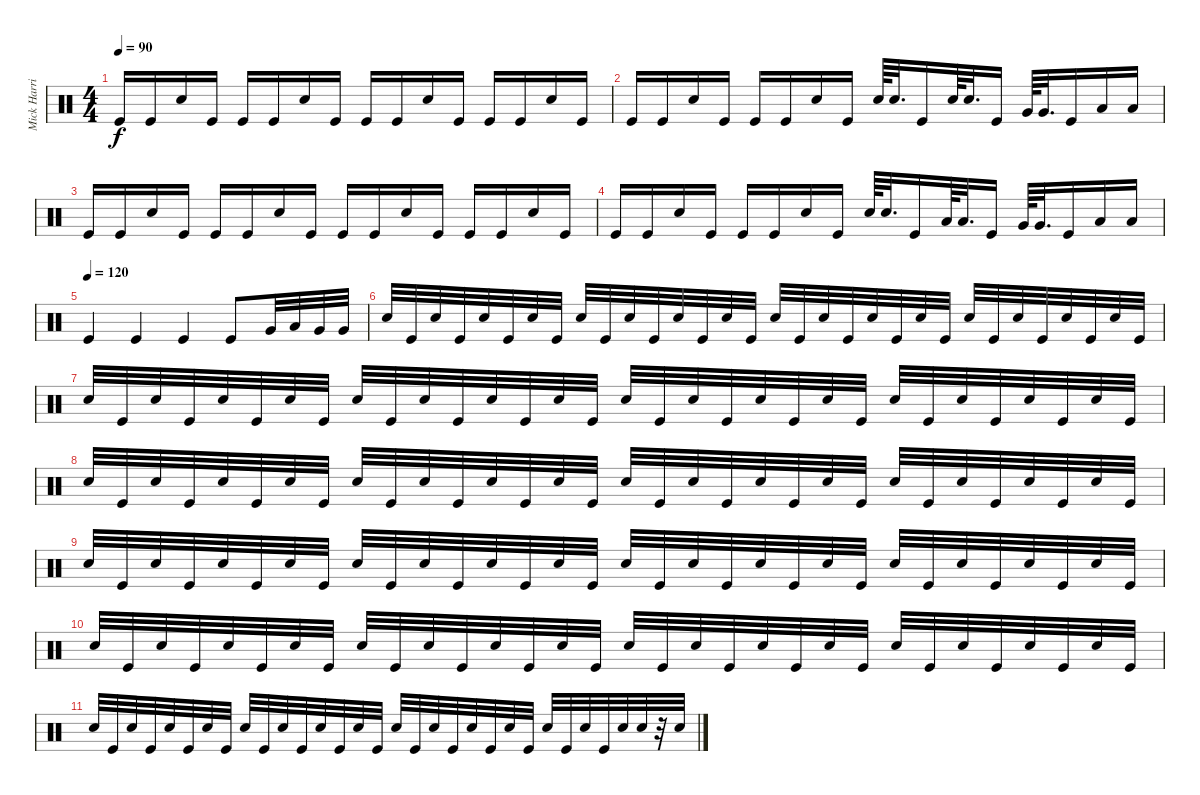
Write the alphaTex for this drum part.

\track ("Mick Harris" "Mick Harri") {instrument percussion}
\staff {score}
\articulation defaults
\ts (4 4)
\tempo 90
\clef neutral
\ks c "Kick (hit)".16{dy f} "Kick (hit)".16 "Snare (hit) 2".16 "Kick (hit)".16 "Kick (hit)".16 "Kick (hit)".16 "Snare (hit) 2".16 "Kick (hit)".16 "Kick (hit)".16 "Kick (hit)".16 "Snare (hit) 2".16 "Kick (hit)".16 "Kick (hit)".16 "Kick (hit)".16 "Snare (hit) 2".16 "Kick (hit)".16
|
"Kick (hit)".16 "Kick (hit)".16 "Snare (hit) 2".16 "Kick (hit)".16 "Kick (hit)".16 "Kick (hit)".16 "Snare (hit) 2".16 "Kick (hit)".16 "Snare (hit) 2".64 "Snare (hit) 2".32{d} "Kick (hit)".16 "Snare (hit) 2".64 "Snare (hit) 2".32{d} "Kick (hit)".16 "Very Low Tom (hit)".64 "Very Low Tom (hit)".32{d} "Kick (hit)".16 "Low Floor Tom (hit)".16 "Low Floor Tom (hit)".16 |
"Kick (hit)".16 "Kick (hit)".16 "Snare (hit) 2".16 "Kick (hit)".16 "Kick (hit)".16 "Kick (hit)".16 "Snare (hit) 2".16 "Kick (hit)".16 "Kick (hit)".16 "Kick (hit)".16 "Snare (hit) 2".16 "Kick (hit)".16 "Kick (hit)".16 "Kick (hit)".16 "Snare (hit) 2".16 "Kick (hit)".16 |
"Kick (hit)".16 "Kick (hit)".16 "Snare (hit) 2".16 "Kick (hit)".16 "Kick (hit)".16 "Kick (hit)".16 "Snare (hit) 2".16 "Kick (hit)".16 "Snare (hit) 2".64 "Snare (hit) 2".32{d} "Kick (hit)".16 "Low Tom (hit)".64 "Low Tom (hit)".32{d} "Kick (hit)".16 "Very Low Tom (hit)".64 "Very Low Tom (hit)".32{d} "Kick (hit)".16 "Low Floor Tom (hit)".16 "Low Floor Tom (hit)".16 |
\tempo (120)
"Kick (hit)".4 "Kick (hit)".4 "Kick (hit)".4 "Kick (hit)".8 "Very Low Tom (hit)".32 "Low Tom (hit)".32 "Very Low Tom (hit)".32 "Very Low Tom (hit)".32 |
"Snare (hit) 2".32 "Kick (hit)".32 "Snare (hit) 2".32 "Kick (hit)".32 "Snare (hit) 2".32 "Kick (hit)".32 "Snare (hit) 2".32 "Kick (hit)".32 "Snare (hit) 2".32 "Kick (hit)".32 "Snare (hit) 2".32 "Kick (hit)".32 "Snare (hit) 2".32 "Kick (hit)".32 "Snare (hit) 2".32 "Kick (hit)".32 "Snare (hit) 2".32 "Kick (hit)".32 "Snare (hit) 2".32 "Kick (hit)".32 "Snare (hit) 2".32 "Kick (hit)".32 "Snare (hit) 2".32 "Kick (hit)".32 "Snare (hit) 2".32 "Kick (hit)".32 "Snare (hit) 2".32 "Kick (hit)".32 "Snare (hit) 2".32 "Kick (hit)".32 "Snare (hit) 2".32 "Kick (hit)".32 |
"Snare (hit) 2".32 "Kick (hit)".32 "Snare (hit) 2".32 "Kick (hit)".32 "Snare (hit) 2".32 "Kick (hit)".32 "Snare (hit) 2".32 "Kick (hit)".32 "Snare (hit) 2".32 "Kick (hit)".32 "Snare (hit) 2".32 "Kick (hit)".32 "Snare (hit) 2".32 "Kick (hit)".32 "Snare (hit) 2".32 "Kick (hit)".32 "Snare (hit) 2".32 "Kick (hit)".32 "Snare (hit) 2".32 "Kick (hit)".32 "Snare (hit) 2".32 "Kick (hit)".32 "Snare (hit) 2".32 "Kick (hit)".32 "Snare (hit) 2".32 "Kick (hit)".32 "Snare (hit) 2".32 "Kick (hit)".32 "Snare (hit) 2".32 "Kick (hit)".32 "Snare (hit) 2".32 "Kick (hit)".32 |
"Snare (hit) 2".32 "Kick (hit)".32 "Snare (hit) 2".32 "Kick (hit)".32 "Snare (hit) 2".32 "Kick (hit)".32 "Snare (hit) 2".32 "Kick (hit)".32 "Snare (hit) 2".32 "Kick (hit)".32 "Snare (hit) 2".32 "Kick (hit)".32 "Snare (hit) 2".32 "Kick (hit)".32 "Snare (hit) 2".32 "Kick (hit)".32 "Snare (hit) 2".32 "Kick (hit)".32 "Snare (hit) 2".32 "Kick (hit)".32 "Snare (hit) 2".32 "Kick (hit)".32 "Snare (hit) 2".32 "Kick (hit)".32 "Snare (hit) 2".32 "Kick (hit)".32 "Snare (hit) 2".32 "Kick (hit)".32 "Snare (hit) 2".32 "Kick (hit)".32 "Snare (hit) 2".32 "Kick (hit)".32 |
"Snare (hit) 2".32 "Kick (hit)".32 "Snare (hit) 2".32 "Kick (hit)".32 "Snare (hit) 2".32 "Kick (hit)".32 "Snare (hit) 2".32 "Kick (hit)".32 "Snare (hit) 2".32 "Kick (hit)".32 "Snare (hit) 2".32 "Kick (hit)".32 "Snare (hit) 2".32 "Kick (hit)".32 "Snare (hit) 2".32 "Kick (hit)".32 "Snare (hit) 2".32 "Kick (hit)".32 "Snare (hit) 2".32 "Kick (hit)".32 "Snare (hit) 2".32 "Kick (hit)".32 "Snare (hit) 2".32 "Kick (hit)".32 "Snare (hit) 2".32 "Kick (hit)".32 "Snare (hit) 2".32 "Kick (hit)".32 "Snare (hit) 2".32 "Kick (hit)".32 "Snare (hit) 2".32 "Kick (hit)".32 |
"Snare (hit) 2".32 "Kick (hit)".32 "Snare (hit) 2".32 "Kick (hit)".32 "Snare (hit) 2".32 "Kick (hit)".32 "Snare (hit) 2".32 "Kick (hit)".32 "Snare (hit) 2".32 "Kick (hit)".32 "Snare (hit) 2".32 "Kick (hit)".32 "Snare (hit) 2".32 "Kick (hit)".32 "Snare (hit) 2".32 "Kick (hit)".32 "Snare (hit) 2".32 "Kick (hit)".32 "Snare (hit) 2".32 "Kick (hit)".32 "Snare (hit) 2".32 "Kick (hit)".32 "Snare (hit) 2".32 "Kick (hit)".32 "Snare (hit) 2".32 "Kick (hit)".32 "Snare (hit) 2".32 "Kick (hit)".32 "Snare (hit) 2".32 "Kick (hit)".32 "Snare (hit) 2".32 "Kick (hit)".32 |
"Snare (hit) 2".32 "Kick (hit)".32 "Snare (hit) 2".32 "Kick (hit)".32 "Snare (hit) 2".32 "Kick (hit)".32 "Snare (hit) 2".32 "Kick (hit)".32 "Snare (hit) 2".32 "Kick (hit)".32 "Snare (hit) 2".32 "Kick (hit)".32 "Snare (hit) 2".32 "Kick (hit)".32 "Snare (hit) 2".32 "Kick (hit)".32 "Snare (hit) 2".32 "Kick (hit)".32 "Snare (hit) 2".32 "Kick (hit)".32 "Snare (hit) 2".32 "Kick (hit)".32 "Snare (hit) 2".32 "Kick (hit)".32 "Snare (hit) 2".32 "Kick (hit)".32 "Snare (hit) 2".32 "Kick (hit)".32 "Snare (hit) 2".32 "Snare (hit) 2".32 r.32 "Snare (hit) 2".32
